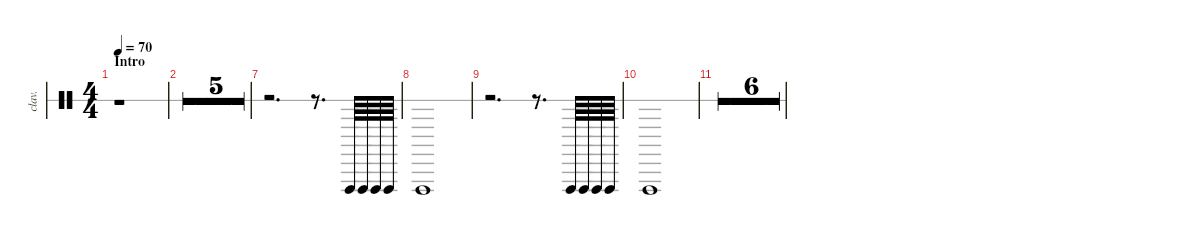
\defaultSystemsLayout 4
\hideDynamics
\bracketExtendMode nobrackets
\otherSystemsTrackNameOrientation horizontal
\track ("Claves" "clav.") {defaultSystemsLayout 4 multiBarRest instrument percussion}
\staff {score 1}
\articulation defaults
\ts (4 4)
\section ("" "Intro")
\tempo 70
\clef neutral
\ks c
r.1{dy mp} |
r.1 |
r.1 |
r.1 |
r.1 |
r.1 |
r.2{d} r.8{d} "Claves (hit)".64 "Claves (hit)".64 "Claves (hit)".64{dy mf} "Claves (hit)".64{dy f} |
"Claves (hit)".1{dy mp} |
r.2{d} r.8{d} "Claves (hit)".64 "Claves (hit)".64 "Claves (hit)".64{dy mf} "Claves (hit)".64{dy f} |
"Claves (hit)".1{dy mp} |
r.1 |
r.1 |
r.1 |
r.1 |
r.1 |
r.1
